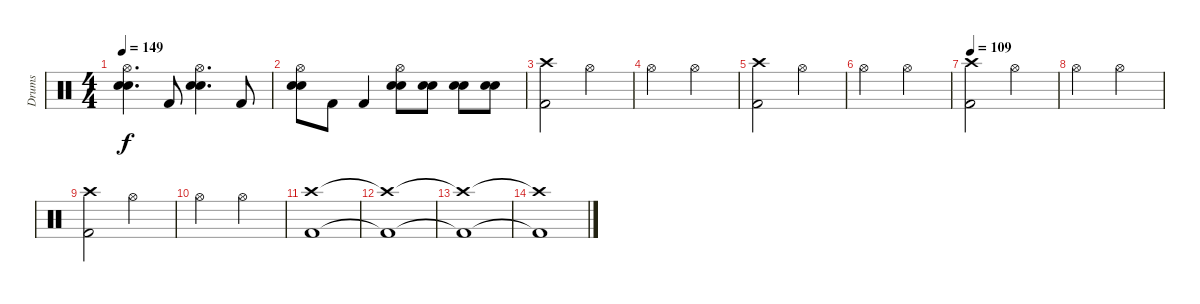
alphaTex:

\track ("Drums" "Drums") {instrument percussion}
\staff {score}
\articulation defaults
\ts (4 4)
\tempo 149
\clef neutral
\ks c
("Electric Snare (hit)" "Snare (hit) 2" "Hi-Hat (open)").4{d dy f} "Kick (hit) 2".8 ("Electric Snare (hit)" "Snare (hit) 2" "Hi-Hat (open)").4{d} "Kick (hit) 2".8 |
("Electric Snare (hit)" "Snare (hit) 2" "Hi-Hat (open)").8 "Kick (hit) 2".8 "Kick (hit) 2".4 ("Electric Snare (hit)" "Snare (hit) 2" "Hi-Hat (open)").8 ("Electric Snare (hit)" "Snare (hit) 2").8 ("Electric Snare (hit)" "Snare (hit) 2").8 ("Electric Snare (hit)" "Snare (hit) 2").8 |
("Kick (hit) 2" "Crash high (hit)").2 "Hi-Hat (open)".2 |
"Hi-Hat (open)".2 "Hi-Hat (open)".2 |
("Kick (hit) 2" "Crash high (hit)").2 "Hi-Hat (open)".2 |
"Hi-Hat (open)".2 "Hi-Hat (open)".2 |
\tempo 109
("Kick (hit) 2" "Crash high (hit)").2 "Hi-Hat (open)".2 |
"Hi-Hat (open)".2 "Hi-Hat (open)".2 |
("Kick (hit) 2" "Crash high (hit)").2 "Hi-Hat (open)".2 |
"Hi-Hat (open)".2 "Hi-Hat (open)".2 |
("Kick (hit) 2" "Crash high (hit)").1 |
("Kick (hit) 2"{t} "Crash high (hit)"{t}).1 |
("Kick (hit) 2"{t} "Crash high (hit)"{t}).1 |
("Kick (hit) 2"{t} "Crash high (hit)"{t}).1
